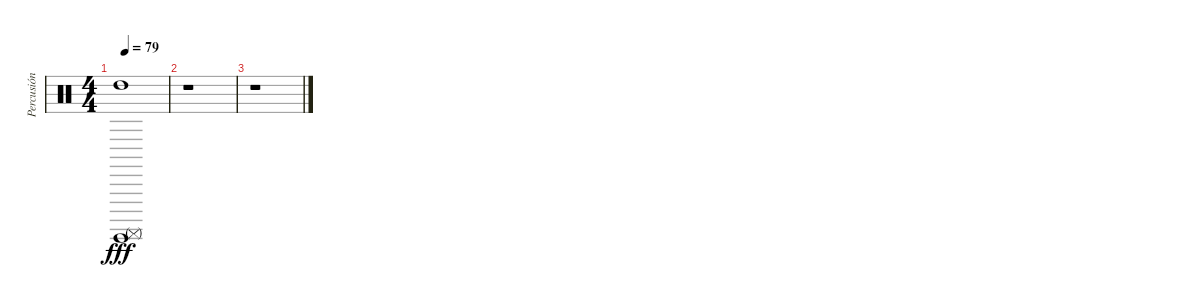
\track ("Percusión" "Percusión") {instrument percussion}
\staff {score}
\articulation defaults
\ts (4 4)
\tempo 79
\clef neutral
\ks c
("High Tom (hit)" "Surdo (mute)" "Surdo (hit)").1{dy fff} |
r.1 |
r.1
